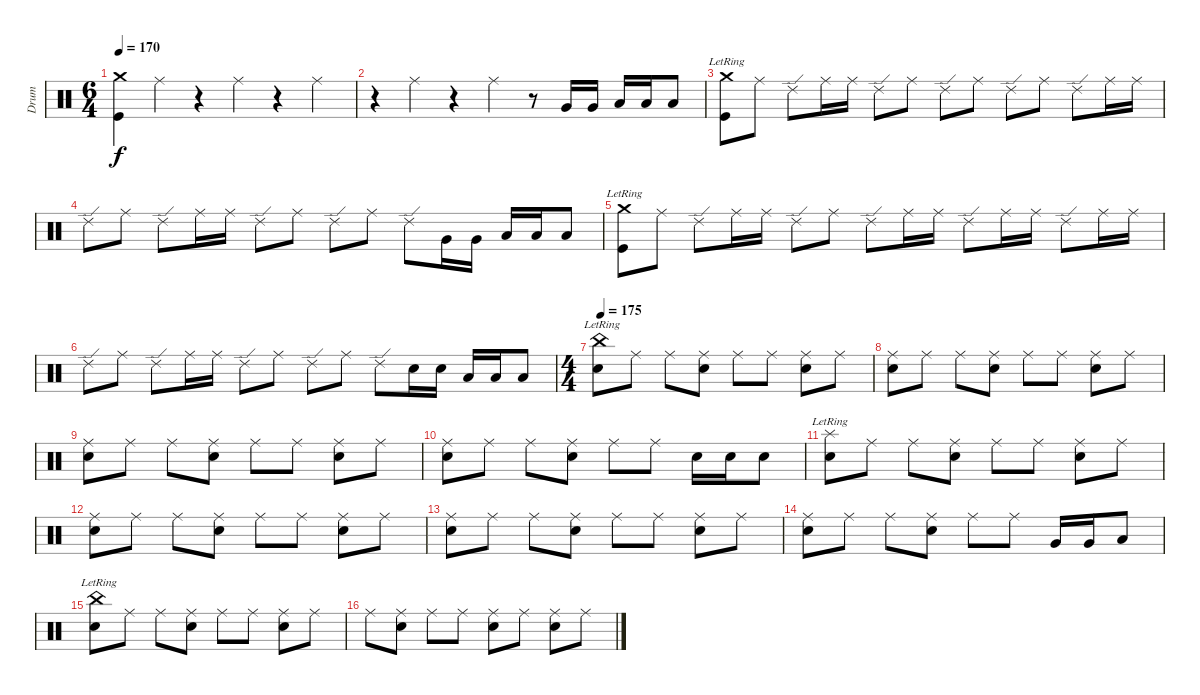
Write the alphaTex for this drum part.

\track ("Drum" "Drum") {instrument percussion}
\staff {score}
\articulation defaults
\ts (6 4)
\tempo 170
\clef neutral
\ks c
("Crash medium (hit)" "Kick (hit)").4{dy f} "Ride (middle)".4 r.4 "Ride (middle)".4 r.4 "Ride (middle)".4 |
r.4 "Ride (middle)".4 r.4 "Ride (middle)".4 r.8 "Very Low Tom (hit)".16 "Very Low Tom (hit)".16 "Low Tom (hit)".16 "Low Tom (hit)".16 "Low Floor Tom (hit)".8 |
("Crash medium (hit)"{lr} "Kick (hit)").8 "Ride (middle)".8 "Ride (edge) 2".8 "Ride (middle)".16 "Ride (middle)".16 "Ride (edge) 2".8 "Ride (middle)".8 "Ride (edge) 2".8 "Ride (middle)".8 "Ride (edge) 2".8 "Ride (middle)".8 "Ride (edge) 2".8 "Ride (middle)".16 "Ride (middle)".16 |
"Ride (edge) 2".8 "Ride (middle)".8 "Ride (edge) 2".8 "Ride (middle)".16 "Ride (middle)".16 "Ride (edge) 2".8 "Ride (middle)".8 "Ride (edge) 2".8 "Ride (middle)".8 "Ride (edge) 2".8 "Very Low Tom (hit)".16 "Very Low Tom (hit)".16 "Low Tom (hit)".16 "Low Tom (hit)".16 "Low Floor Tom (hit)".8 |
("Crash medium (hit)"{lr} "Kick (hit)").8 "Ride (middle)".8 "Ride (edge) 2".8 "Ride (middle)".16 "Ride (middle)".16 "Ride (edge) 2".8 "Ride (middle)".8 "Ride (edge) 2".8 "Ride (middle)".16 "Ride (middle)".16 "Ride (edge) 2".8 "Ride (middle)".16 "Ride (middle)".16 "Ride (edge) 2".8 "Ride (middle)".16 "Ride (middle)".16 |
"Ride (edge) 2".8 "Ride (middle)".8 "Ride (edge) 2".8 "Ride (middle)".16 "Ride (middle)".16 "Ride (edge) 2".8 "Ride (middle)".8 "Ride (edge) 2".8 "Ride (middle)".8 "Ride (edge) 2".8 "Snare (hit) 2".16 "Snare (hit) 2".16 "Low Tom (hit)".16 "Low Tom (hit)".16 "Low Floor Tom (hit)".8 |
\ts (4 4)
\tempo 175
("China (hit)"{lr} "Snare (hit) 2").8 "Ride (middle)".8 "Ride (middle)".8 ("Ride (middle)" "Snare (hit) 2").8 "Ride (middle)".8 "Ride (middle)".8 ("Ride (middle)" "Snare (hit) 2").8 "Ride (middle)".8 |
("Ride (middle)" "Snare (hit) 2").8 "Ride (middle)".8 "Ride (middle)".8 ("Ride (middle)" "Snare (hit) 2").8 "Ride (middle)".8 "Ride (middle)".8 ("Ride (middle)" "Snare (hit) 2").8 "Ride (middle)".8 |
("Ride (middle)" "Snare (hit) 2").8 "Ride (middle)".8 "Ride (middle)".8 ("Ride (middle)" "Snare (hit) 2").8 "Ride (middle)".8 "Ride (middle)".8 ("Ride (middle)" "Snare (hit) 2").8 "Ride (middle)".8 |
("Ride (middle)" "Snare (hit) 2").8 "Ride (middle)".8 "Ride (middle)".8 ("Ride (middle)" "Snare (hit) 2").8 "Ride (middle)".8 "Ride (middle)".8 "Snare (hit) 2".16 "Snare (hit) 2".16 "Snare (hit) 2".8 |
("Splash (hit)"{lr} "Snare (hit) 2").8 "Ride (middle)".8 "Ride (middle)".8 ("Ride (middle)" "Snare (hit) 2").8 "Ride (middle)".8 "Ride (middle)".8 ("Ride (middle)" "Snare (hit) 2").8 "Ride (middle)".8 |
("Ride (middle)" "Snare (hit) 2").8 "Ride (middle)".8 "Ride (middle)".8 ("Ride (middle)" "Snare (hit) 2").8 "Ride (middle)".8 "Ride (middle)".8 ("Ride (middle)" "Snare (hit) 2").8 "Ride (middle)".8 |
("Ride (middle)" "Snare (hit) 2").8 "Ride (middle)".8 "Ride (middle)".8 ("Ride (middle)" "Snare (hit) 2").8 "Ride (middle)".8 "Ride (middle)".8 ("Ride (middle)" "Snare (hit) 2").8 "Ride (middle)".8 |
("Ride (middle)" "Snare (hit) 2").8 "Ride (middle)".8 "Ride (middle)".8 ("Ride (middle)" "Snare (hit) 2").8 "Ride (middle)".8 "Ride (middle)".8 "Very Low Tom (hit)".16 "Very Low Tom (hit)".16 "Low Floor Tom (hit)".8 |
("China (hit)"{lr} "Snare (hit) 2").8 "Ride (middle)".8 "Ride (middle)".8 ("Ride (middle)" "Snare (hit) 2").8 "Ride (middle)".8 "Ride (middle)".8 ("Ride (middle)" "Snare (hit) 2").8 "Ride (middle)".8 |
"Ride (middle)".8 ("Ride (middle)" "Snare (hit) 2").8 "Ride (middle)".8 "Ride (middle)".8 ("Ride (middle)" "Snare (hit) 2").8 "Ride (middle)".8 ("Ride (middle)" "Snare (hit) 2").8 "Ride (middle)".8
